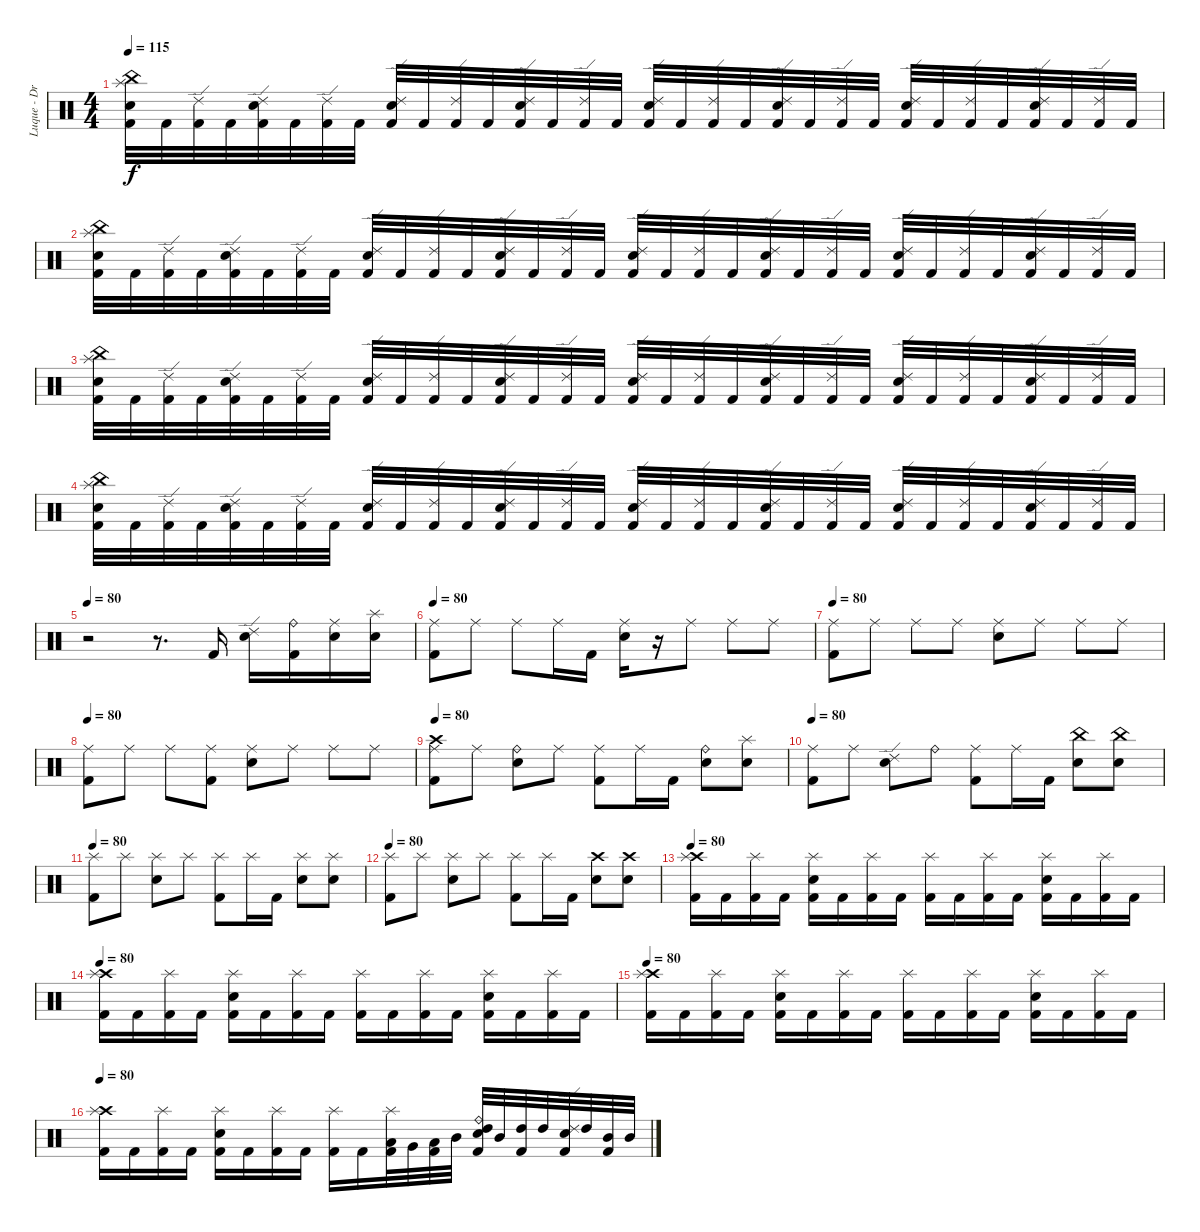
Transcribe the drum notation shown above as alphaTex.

\track ("Luque - Drums" "Luque - Dr") {instrument percussion}
\staff {score}
\articulation defaults
\ts (4 4)
\tempo 115
\clef neutral
\ks c
("Splash (hit)" "China (hit)" "Electric Snare (hit)" "Kick (hit) 2").32{dy f} "Kick (hit) 2".32 ("Ride (edge) 2" "Kick (hit) 2").32 "Kick (hit) 2".32 ("Ride (edge) 2" "Electric Snare (hit)" "Kick (hit) 2").32 "Kick (hit) 2".32 ("Ride (edge) 2" "Kick (hit) 2").32 "Kick (hit) 2".32 ("Ride (edge) 2" "Electric Snare (hit)" "Kick (hit) 2").32 "Kick (hit) 2".32 ("Ride (edge) 2" "Kick (hit) 2").32 "Kick (hit) 2".32 ("Ride (edge) 2" "Electric Snare (hit)" "Kick (hit) 2").32 "Kick (hit) 2".32 ("Ride (edge) 2" "Kick (hit) 2").32 "Kick (hit) 2".32 ("Ride (edge) 2" "Electric Snare (hit)" "Kick (hit) 2").32 "Kick (hit) 2".32 ("Ride (edge) 2" "Kick (hit) 2").32 "Kick (hit) 2".32 ("Ride (edge) 2" "Electric Snare (hit)" "Kick (hit) 2").32 "Kick (hit) 2".32 ("Ride (edge) 2" "Kick (hit) 2").32 "Kick (hit) 2".32 ("Ride (edge) 2" "Electric Snare (hit)" "Kick (hit) 2").32 "Kick (hit) 2".32 ("Ride (edge) 2" "Kick (hit) 2").32 "Kick (hit) 2".32 ("Ride (edge) 2" "Electric Snare (hit)" "Kick (hit) 2").32 "Kick (hit) 2".32 ("Ride (edge) 2" "Kick (hit) 2").32 "Kick (hit) 2".32 |
("Splash (hit)" "China (hit)" "Electric Snare (hit)" "Kick (hit) 2").32 "Kick (hit) 2".32 ("Ride (edge) 2" "Kick (hit) 2").32 "Kick (hit) 2".32 ("Ride (edge) 2" "Electric Snare (hit)" "Kick (hit) 2").32 "Kick (hit) 2".32 ("Ride (edge) 2" "Kick (hit) 2").32 "Kick (hit) 2".32 ("Ride (edge) 2" "Electric Snare (hit)" "Kick (hit) 2").32 "Kick (hit) 2".32 ("Ride (edge) 2" "Kick (hit) 2").32 "Kick (hit) 2".32 ("Ride (edge) 2" "Electric Snare (hit)" "Kick (hit) 2").32 "Kick (hit) 2".32 ("Ride (edge) 2" "Kick (hit) 2").32 "Kick (hit) 2".32 ("Ride (edge) 2" "Electric Snare (hit)" "Kick (hit) 2").32 "Kick (hit) 2".32 ("Ride (edge) 2" "Kick (hit) 2").32 "Kick (hit) 2".32 ("Ride (edge) 2" "Electric Snare (hit)" "Kick (hit) 2").32 "Kick (hit) 2".32 ("Ride (edge) 2" "Kick (hit) 2").32 "Kick (hit) 2".32 ("Ride (edge) 2" "Electric Snare (hit)" "Kick (hit) 2").32 "Kick (hit) 2".32 ("Ride (edge) 2" "Kick (hit) 2").32 "Kick (hit) 2".32 ("Ride (edge) 2" "Electric Snare (hit)" "Kick (hit) 2").32 "Kick (hit) 2".32 ("Ride (edge) 2" "Kick (hit) 2").32 "Kick (hit) 2".32 |
("Splash (hit)" "China (hit)" "Electric Snare (hit)" "Kick (hit) 2").32 "Kick (hit) 2".32 ("Ride (edge) 2" "Kick (hit) 2").32 "Kick (hit) 2".32 ("Ride (edge) 2" "Electric Snare (hit)" "Kick (hit) 2").32 "Kick (hit) 2".32 ("Ride (edge) 2" "Kick (hit) 2").32 "Kick (hit) 2".32 ("Ride (edge) 2" "Electric Snare (hit)" "Kick (hit) 2").32 "Kick (hit) 2".32 ("Ride (edge) 2" "Kick (hit) 2").32 "Kick (hit) 2".32 ("Ride (edge) 2" "Electric Snare (hit)" "Kick (hit) 2").32 "Kick (hit) 2".32 ("Ride (edge) 2" "Kick (hit) 2").32 "Kick (hit) 2".32 ("Ride (edge) 2" "Electric Snare (hit)" "Kick (hit) 2").32 "Kick (hit) 2".32 ("Ride (edge) 2" "Kick (hit) 2").32 "Kick (hit) 2".32 ("Ride (edge) 2" "Electric Snare (hit)" "Kick (hit) 2").32 "Kick (hit) 2".32 ("Ride (edge) 2" "Kick (hit) 2").32 "Kick (hit) 2".32 ("Ride (edge) 2" "Electric Snare (hit)" "Kick (hit) 2").32 "Kick (hit) 2".32 ("Ride (edge) 2" "Kick (hit) 2").32 "Kick (hit) 2".32 ("Ride (edge) 2" "Electric Snare (hit)" "Kick (hit) 2").32 "Kick (hit) 2".32 ("Ride (edge) 2" "Kick (hit) 2").32 "Kick (hit) 2".32 |
("Splash (hit)" "China (hit)" "Electric Snare (hit)" "Kick (hit) 2").32 "Kick (hit) 2".32 ("Ride (edge) 2" "Kick (hit) 2").32 "Kick (hit) 2".32 ("Ride (edge) 2" "Electric Snare (hit)" "Kick (hit) 2").32 "Kick (hit) 2".32 ("Ride (edge) 2" "Kick (hit) 2").32 "Kick (hit) 2".32 ("Ride (edge) 2" "Electric Snare (hit)" "Kick (hit) 2").32 "Kick (hit) 2".32 ("Ride (edge) 2" "Kick (hit) 2").32 "Kick (hit) 2".32 ("Ride (edge) 2" "Electric Snare (hit)" "Kick (hit) 2").32 "Kick (hit) 2".32 ("Ride (edge) 2" "Kick (hit) 2").32 "Kick (hit) 2".32 ("Ride (edge) 2" "Electric Snare (hit)" "Kick (hit) 2").32 "Kick (hit) 2".32 ("Ride (edge) 2" "Kick (hit) 2").32 "Kick (hit) 2".32 ("Ride (edge) 2" "Electric Snare (hit)" "Kick (hit) 2").32 "Kick (hit) 2".32 ("Ride (edge) 2" "Kick (hit) 2").32 "Kick (hit) 2".32 ("Ride (edge) 2" "Electric Snare (hit)" "Kick (hit) 2").32 "Kick (hit) 2".32 ("Ride (edge) 2" "Kick (hit) 2").32 "Kick (hit) 2".32 ("Ride (edge) 2" "Electric Snare (hit)" "Kick (hit) 2").32 "Kick (hit) 2".32 ("Ride (edge) 2" "Kick (hit) 2").32 "Kick (hit) 2".32 |
\tempo 80
r.2 r.8{d} "Kick (hit) 2".16 ("Ride (edge) 2" "Electric Snare (hit)").16 ("Ride (bell)" "Kick (hit) 2").16 ("Ride (middle)" "Electric Snare (hit)").16 ("Splash (hit)" "Electric Snare (hit)").16 |
\tempo 80
("Ride (middle)" "Kick (hit) 2").8 "Ride (middle)".8 "Ride (middle)".8 "Ride (middle)".16 "Kick (hit) 2".16 ("Ride (middle)" "Electric Snare (hit)").16 r.16 "Ride (middle)".8 "Ride (middle)".8 "Ride (middle)".8 |
\tempo 80
("Ride (middle)" "Kick (hit) 2").8 "Ride (middle)".8 "Ride (middle)".8 "Ride (middle)".8 ("Ride (middle)" "Electric Snare (hit)").8 "Ride (middle)".8 "Ride (middle)".8 "Ride (middle)".8 |
\tempo 80
("Ride (middle)" "Kick (hit) 2").8 "Ride (middle)".8 "Ride (middle)".8 ("Ride (middle)" "Kick (hit) 2").8 ("Ride (middle)" "Electric Snare (hit)").8 "Ride (middle)".8 "Ride (middle)".8 "Ride (middle)".8 |
\tempo 80
("Crash high (hit)" "Ride (middle)" "Kick (hit) 2").8 "Ride (middle)".8 ("Ride (bell)" "Electric Snare (hit)").8 "Ride (middle)".8 ("Ride (middle)" "Kick (hit) 2").8 "Ride (middle)".16 "Kick (hit) 2".16 ("Ride (bell)" "Electric Snare (hit)").8 ("Splash (hit)" "Electric Snare (hit)").8 |
\tempo 80
("Ride (middle)" "Kick (hit) 2").8 "Ride (middle)".8 ("Ride (edge) 2" "Electric Snare (hit)").8 "Ride (bell)".8 ("Ride (middle)" "Kick (hit) 2").8 "Ride (middle)".16 "Kick (hit) 2".16 ("China (hit)" "Electric Snare (hit)").8 ("China (hit)" "Electric Snare (hit)").8 |
\tempo 80
("Splash (hit)" "Kick (hit) 2").8 "Splash (hit)".8 ("Splash (hit)" "Electric Snare (hit)").8 "Splash (hit)".8 ("Splash (hit)" "Kick (hit) 2").8 "Splash (hit)".16 "Kick (hit) 2".16 ("Splash (hit)" "Electric Snare (hit)").8 ("Splash (hit)" "Electric Snare (hit)").8 |
\tempo 80
("Splash (hit)" "Kick (hit) 2").8 "Splash (hit)".8 ("Splash (hit)" "Electric Snare (hit)").8 "Splash (hit)".8 ("Splash (hit)" "Kick (hit) 2").8 "Splash (hit)".16 "Kick (hit) 2".16 ("Crash high (hit)" "Electric Snare (hit)").8 ("Crash high (hit)" "Electric Snare (hit)").8 |
\tempo 80
("Crash high (hit)" "Splash (hit)" "Kick (hit) 2").16 "Kick (hit) 2".16 ("Splash (hit)" "Kick (hit) 2").16 "Kick (hit) 2".16 ("Splash (hit)" "Electric Snare (hit)" "Kick (hit) 2").16 "Kick (hit) 2".16 ("Splash (hit)" "Kick (hit) 2").16 "Kick (hit) 2".16 ("Splash (hit)" "Kick (hit) 2").16 "Kick (hit) 2".16 ("Splash (hit)" "Kick (hit) 2").16 "Kick (hit) 2".16 ("Splash (hit)" "Electric Snare (hit)" "Kick (hit) 2").16 "Kick (hit) 2".16 ("Splash (hit)" "Kick (hit) 2").16 "Kick (hit) 2".16 |
\tempo 80
("Crash high (hit)" "Splash (hit)" "Kick (hit) 2").16 "Kick (hit) 2".16 ("Splash (hit)" "Kick (hit) 2").16 "Kick (hit) 2".16 ("Splash (hit)" "Electric Snare (hit)" "Kick (hit) 2").16 "Kick (hit) 2".16 ("Splash (hit)" "Kick (hit) 2").16 "Kick (hit) 2".16 ("Splash (hit)" "Kick (hit) 2").16 "Kick (hit) 2".16 ("Splash (hit)" "Kick (hit) 2").16 "Kick (hit) 2".16 ("Splash (hit)" "Electric Snare (hit)" "Kick (hit) 2").16 "Kick (hit) 2".16 ("Splash (hit)" "Kick (hit) 2").16 "Kick (hit) 2".16 |
\tempo 80
("Crash high (hit)" "Splash (hit)" "Kick (hit) 2").16 "Kick (hit) 2".16 ("Splash (hit)" "Kick (hit) 2").16 "Kick (hit) 2".16 ("Splash (hit)" "Electric Snare (hit)" "Kick (hit) 2").16 "Kick (hit) 2".16 ("Splash (hit)" "Kick (hit) 2").16 "Kick (hit) 2".16 ("Splash (hit)" "Kick (hit) 2").16 "Kick (hit) 2".16 ("Splash (hit)" "Kick (hit) 2").16 "Kick (hit) 2".16 ("Splash (hit)" "Electric Snare (hit)" "Kick (hit) 2").16 "Kick (hit) 2".16 ("Splash (hit)" "Kick (hit) 2").16 "Kick (hit) 2".16 |
\tempo 80
("Crash high (hit)" "Splash (hit)" "Kick (hit) 2").16 "Kick (hit) 2".16 ("Splash (hit)" "Kick (hit) 2").16 "Kick (hit) 2".16 ("Splash (hit)" "Electric Snare (hit)" "Kick (hit) 2").16 "Kick (hit) 2".16 ("Splash (hit)" "Kick (hit) 2").16 "Kick (hit) 2".16 ("Splash (hit)" "Kick (hit) 2").16 "Kick (hit) 2".16 ("Splash (hit)" "Low Tom (hit)" "Kick (hit) 2").32 "Very Low Tom (hit)".32 ("Low Tom (hit)" "Kick (hit) 2").32 "Mid Tom (hit)".32 ("Ride (bell)" "Electric Snare (hit)" "High Tom (hit)" "Kick (hit) 2").32 "Mid Tom (hit)".32 ("High Tom (hit)" "Kick (hit) 2").32 "High Tom (hit)".32 ("Ride (edge) 2" "Electric Snare (hit)" "Kick (hit) 2").32 "High Tom (hit)".32 ("Mid Tom (hit)" "Kick (hit) 2").32 "Mid Tom (hit)".32
